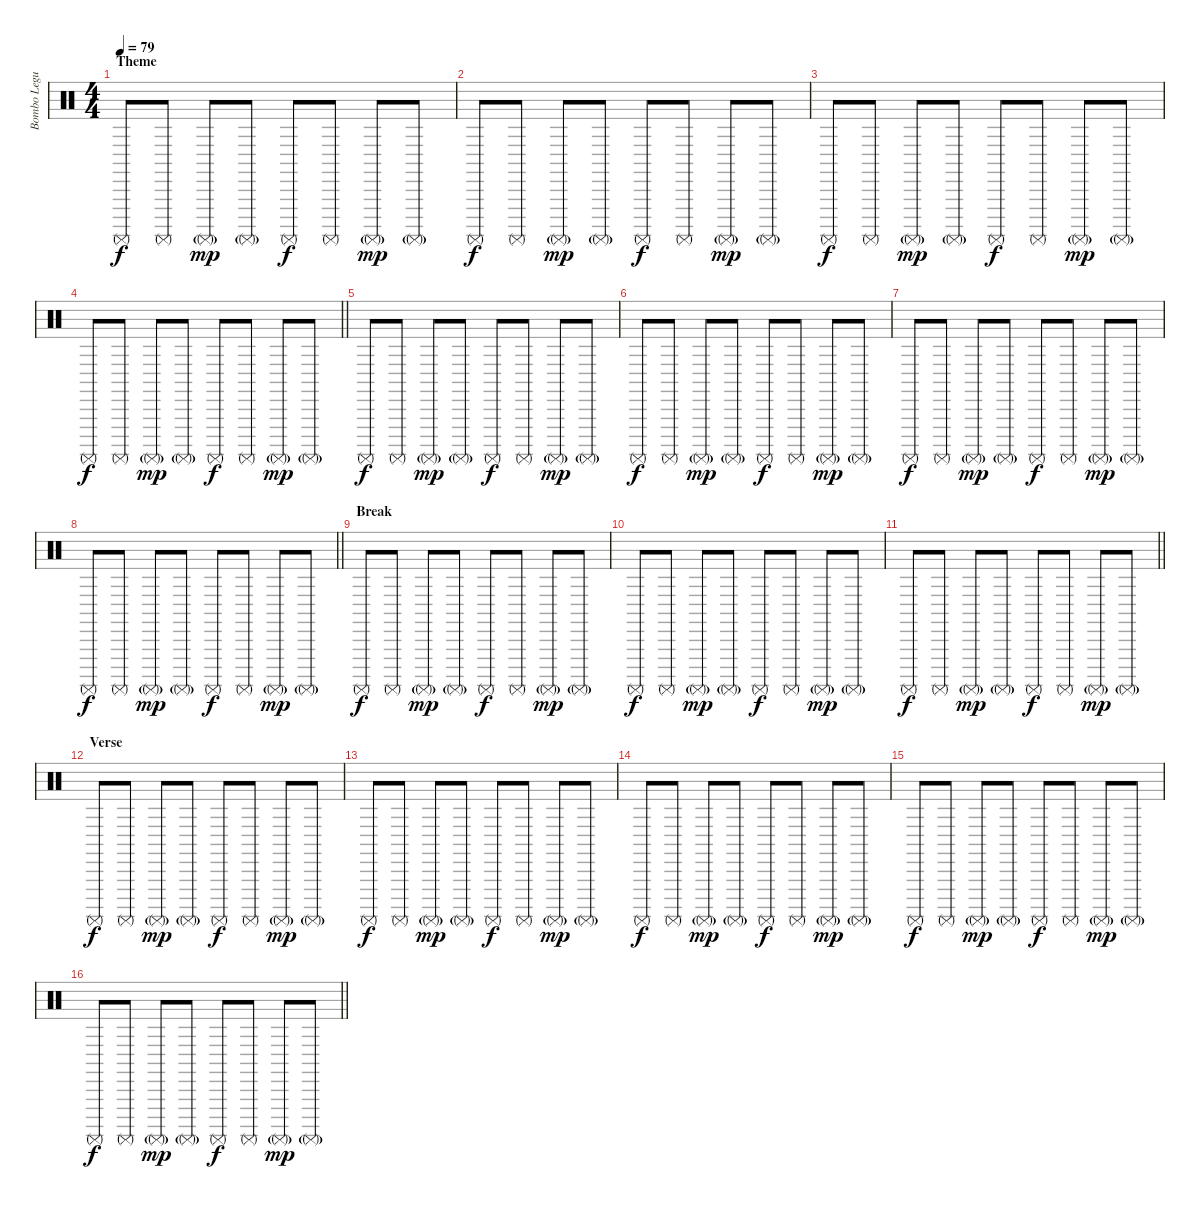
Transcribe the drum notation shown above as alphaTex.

\track ("Bombo Leguero" "Bombo Legu") {instrument percussion}
\staff {score}
\articulation defaults
\ts (4 4)
\section ("" "Theme")
\tempo 79
\clef neutral
\ks c "Surdo (mute)".8{dy f} "Surdo (mute)".8 "Surdo (mute)"{g}.8{dy mp} "Surdo (mute)"{g}.8 "Surdo (mute)".8{dy f} "Surdo (mute)".8 "Surdo (mute)"{g}.8{dy mp} "Surdo (mute)"{g}.8
|
"Surdo (mute)".8{dy f} "Surdo (mute)".8 "Surdo (mute)"{g}.8{dy mp} "Surdo (mute)"{g}.8 "Surdo (mute)".8{dy f} "Surdo (mute)".8 "Surdo (mute)"{g}.8{dy mp} "Surdo (mute)"{g}.8 |
"Surdo (mute)".8{dy f} "Surdo (mute)".8 "Surdo (mute)"{g}.8{dy mp} "Surdo (mute)"{g}.8 "Surdo (mute)".8{dy f} "Surdo (mute)".8 "Surdo (mute)"{g}.8{dy mp} "Surdo (mute)"{g}.8 |
\barLineRight lightlight "Surdo (mute)".8{dy f} "Surdo (mute)".8 "Surdo (mute)"{g}.8{dy mp} "Surdo (mute)"{g}.8 "Surdo (mute)".8{dy f} "Surdo (mute)".8 "Surdo (mute)"{g}.8{dy mp} "Surdo (mute)"{g}.8
|
"Surdo (mute)".8{dy f} "Surdo (mute)".8 "Surdo (mute)"{g}.8{dy mp} "Surdo (mute)"{g}.8 "Surdo (mute)".8{dy f} "Surdo (mute)".8 "Surdo (mute)"{g}.8{dy mp} "Surdo (mute)"{g}.8 |
"Surdo (mute)".8{dy f} "Surdo (mute)".8 "Surdo (mute)"{g}.8{dy mp} "Surdo (mute)"{g}.8 "Surdo (mute)".8{dy f} "Surdo (mute)".8 "Surdo (mute)"{g}.8{dy mp} "Surdo (mute)"{g}.8 |
"Surdo (mute)".8{dy f} "Surdo (mute)".8 "Surdo (mute)"{g}.8{dy mp} "Surdo (mute)"{g}.8 "Surdo (mute)".8{dy f} "Surdo (mute)".8 "Surdo (mute)"{g}.8{dy mp} "Surdo (mute)"{g}.8 |
\barLineRight lightlight "Surdo (mute)".8{dy f} "Surdo (mute)".8 "Surdo (mute)"{g}.8{dy mp} "Surdo (mute)"{g}.8 "Surdo (mute)".8{dy f} "Surdo (mute)".8 "Surdo (mute)"{g}.8{dy mp} "Surdo (mute)"{g}.8
|
\section ("" "Break")
"Surdo (mute)".8{dy f} "Surdo (mute)".8 "Surdo (mute)"{g}.8{dy mp} "Surdo (mute)"{g}.8 "Surdo (mute)".8{dy f} "Surdo (mute)".8 "Surdo (mute)"{g}.8{dy mp} "Surdo (mute)"{g}.8 |
"Surdo (mute)".8{dy f} "Surdo (mute)".8 "Surdo (mute)"{g}.8{dy mp} "Surdo (mute)"{g}.8 "Surdo (mute)".8{dy f} "Surdo (mute)".8 "Surdo (mute)"{g}.8{dy mp} "Surdo (mute)"{g}.8 |
\barLineRight lightlight "Surdo (mute)".8{dy f} "Surdo (mute)".8 "Surdo (mute)"{g}.8{dy mp} "Surdo (mute)"{g}.8 "Surdo (mute)".8{dy f} "Surdo (mute)".8 "Surdo (mute)"{g}.8{dy mp} "Surdo (mute)"{g}.8
|
\section ("" "Verse")
"Surdo (mute)".8{dy f} "Surdo (mute)".8 "Surdo (mute)"{g}.8{dy mp} "Surdo (mute)"{g}.8 "Surdo (mute)".8{dy f} "Surdo (mute)".8 "Surdo (mute)"{g}.8{dy mp} "Surdo (mute)"{g}.8 |
"Surdo (mute)".8{dy f} "Surdo (mute)".8 "Surdo (mute)"{g}.8{dy mp} "Surdo (mute)"{g}.8 "Surdo (mute)".8{dy f} "Surdo (mute)".8 "Surdo (mute)"{g}.8{dy mp} "Surdo (mute)"{g}.8 |
"Surdo (mute)".8{dy f} "Surdo (mute)".8 "Surdo (mute)"{g}.8{dy mp} "Surdo (mute)"{g}.8 "Surdo (mute)".8{dy f} "Surdo (mute)".8 "Surdo (mute)"{g}.8{dy mp} "Surdo (mute)"{g}.8 |
"Surdo (mute)".8{dy f} "Surdo (mute)".8 "Surdo (mute)"{g}.8{dy mp} "Surdo (mute)"{g}.8 "Surdo (mute)".8{dy f} "Surdo (mute)".8 "Surdo (mute)"{g}.8{dy mp} "Surdo (mute)"{g}.8 |
\barLineRight lightlight "Surdo (mute)".8{dy f} "Surdo (mute)".8 "Surdo (mute)"{g}.8{dy mp} "Surdo (mute)"{g}.8 "Surdo (mute)".8{dy f} "Surdo (mute)".8 "Surdo (mute)"{g}.8{dy mp} "Surdo (mute)"{g}.8
